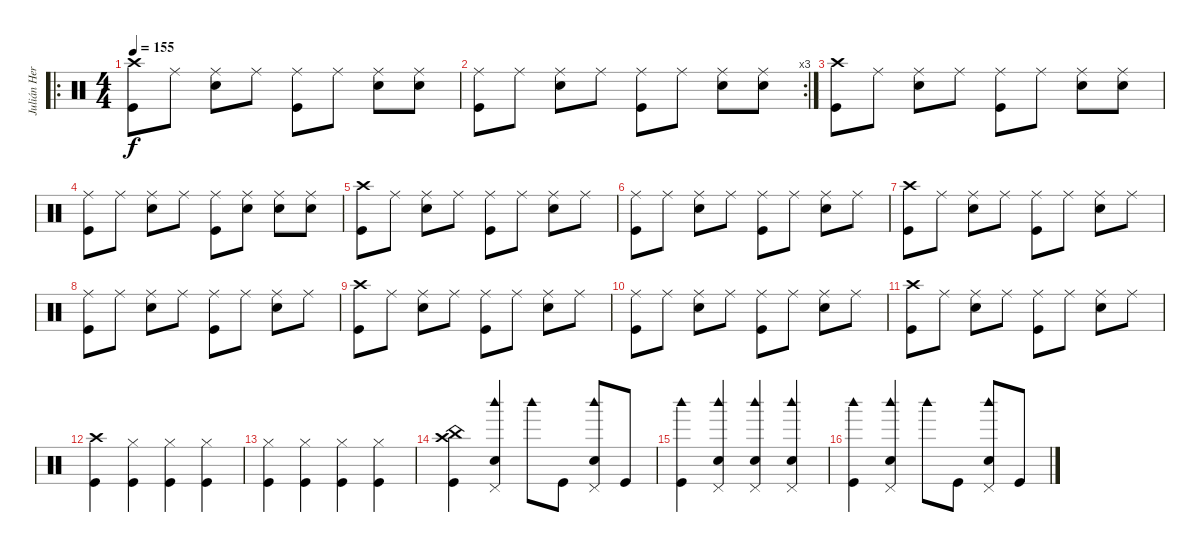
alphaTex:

\track ("Julián Hernandez" "Julián Her") {instrument percussion}
\staff {score}
\articulation defaults
\ro
\ts (4 4)
\tempo 155
\clef neutral
\ks c
("Crash high (hit)" "Kick (hit)").8{dy f} "Ride (middle)".8 ("Ride (middle)" "Snare (hit) 2").8 "Ride (middle)".8 ("Ride (middle)" "Kick (hit)").8 "Ride (middle)".8 ("Ride (middle)" "Snare (hit) 2").8 ("Ride (middle)" "Snare (hit) 2").8 |
\rc 3
("Ride (middle)" "Kick (hit)").8 "Ride (middle)".8 ("Ride (middle)" "Snare (hit) 2").8 "Ride (middle)".8 ("Ride (middle)" "Kick (hit)").8 "Ride (middle)".8 ("Ride (middle)" "Snare (hit) 2").8 ("Ride (middle)" "Snare (hit) 2").8 |
("Crash high (hit)" "Kick (hit)").8 "Ride (middle)".8 ("Ride (middle)" "Snare (hit) 2").8 "Ride (middle)".8 ("Ride (middle)" "Kick (hit)").8 "Ride (middle)".8 ("Ride (middle)" "Snare (hit) 2").8 ("Ride (middle)" "Snare (hit) 2").8 |
("Ride (middle)" "Kick (hit)").8 "Ride (middle)".8 ("Ride (middle)" "Snare (hit) 2").8 "Ride (middle)".8 ("Ride (middle)" "Kick (hit)").8 ("Ride (middle)" "Snare (hit) 2").8 ("Ride (middle)" "Snare (hit) 2").8 ("Ride (middle)" "Snare (hit) 2").8 |
("Crash high (hit)" "Kick (hit)").8 "Ride (middle)".8 ("Ride (middle)" "Snare (hit) 2").8 "Ride (middle)".8 ("Ride (middle)" "Kick (hit)").8 "Ride (middle)".8 ("Ride (middle)" "Snare (hit) 2").8 "Ride (middle)".8 |
("Ride (middle)" "Kick (hit)").8 "Ride (middle)".8 ("Ride (middle)" "Snare (hit) 2").8 "Ride (middle)".8 ("Ride (middle)" "Kick (hit)").8 "Ride (middle)".8 ("Ride (middle)" "Snare (hit) 2").8 "Ride (middle)".8 |
("Crash high (hit)" "Kick (hit)").8 "Ride (middle)".8 ("Ride (middle)" "Snare (hit) 2").8 "Ride (middle)".8 ("Ride (middle)" "Kick (hit)").8 "Ride (middle)".8 ("Ride (middle)" "Snare (hit) 2").8 "Ride (middle)".8 |
("Ride (middle)" "Kick (hit)").8 "Ride (middle)".8 ("Ride (middle)" "Snare (hit) 2").8 "Ride (middle)".8 ("Ride (middle)" "Kick (hit)").8 "Ride (middle)".8 ("Ride (middle)" "Snare (hit) 2").8 "Ride (middle)".8 |
("Crash high (hit)" "Kick (hit)").8 "Ride (middle)".8 ("Ride (middle)" "Snare (hit) 2").8 "Ride (middle)".8 ("Ride (middle)" "Kick (hit)").8 "Ride (middle)".8 ("Ride (middle)" "Snare (hit) 2").8 "Ride (middle)".8 |
("Ride (middle)" "Kick (hit)").8 "Ride (middle)".8 ("Ride (middle)" "Snare (hit) 2").8 "Ride (middle)".8 ("Ride (middle)" "Kick (hit)").8 "Ride (middle)".8 ("Ride (middle)" "Snare (hit) 2").8 "Ride (middle)".8 |
("Crash high (hit)" "Kick (hit)").8 "Ride (middle)".8 ("Ride (middle)" "Snare (hit) 2").8 "Ride (middle)".8 ("Ride (middle)" "Kick (hit)").8 "Ride (middle)".8 ("Ride (middle)" "Snare (hit) 2").8 "Ride (middle)".8 |
("Crash high (hit)" "Kick (hit)").4 ("Hi-Hat (closed)" "Kick (hit)").4 ("Hi-Hat (closed)" "Kick (hit)").4 ("Hi-Hat (closed)" "Kick (hit)").4 |
("Hi-Hat (closed)" "Kick (hit)").4 ("Hi-Hat (closed)" "Kick (hit)").4 ("Hi-Hat (closed)" "Kick (hit)").4 ("Hi-Hat (closed)" "Kick (hit)").4 |
("Crash high (hit)" "China (hit)" "Kick (hit)").4 ("Woodblock high (hit)" "Pedal Hi-Hat (hit)" "Snare (hit) 2").4 "Woodblock high (hit)".8 "Kick (hit)".8 ("Woodblock high (hit)" "Pedal Hi-Hat (hit)" "Snare (hit) 2").8 "Kick (hit)".8 |
("Woodblock high (hit)" "Kick (hit)").4 ("Woodblock high (hit)" "Pedal Hi-Hat (hit)" "Snare (hit) 2").4 ("Woodblock high (hit)" "Pedal Hi-Hat (hit)" "Snare (hit) 2").4 ("Woodblock high (hit)" "Pedal Hi-Hat (hit)" "Snare (hit) 2").4 |
("Woodblock high (hit)" "Kick (hit)").4 ("Woodblock high (hit)" "Pedal Hi-Hat (hit)" "Snare (hit) 2").4 "Woodblock high (hit)".8 "Kick (hit)".8 ("Woodblock high (hit)" "Pedal Hi-Hat (hit)" "Snare (hit) 2").8 "Kick (hit)".8
